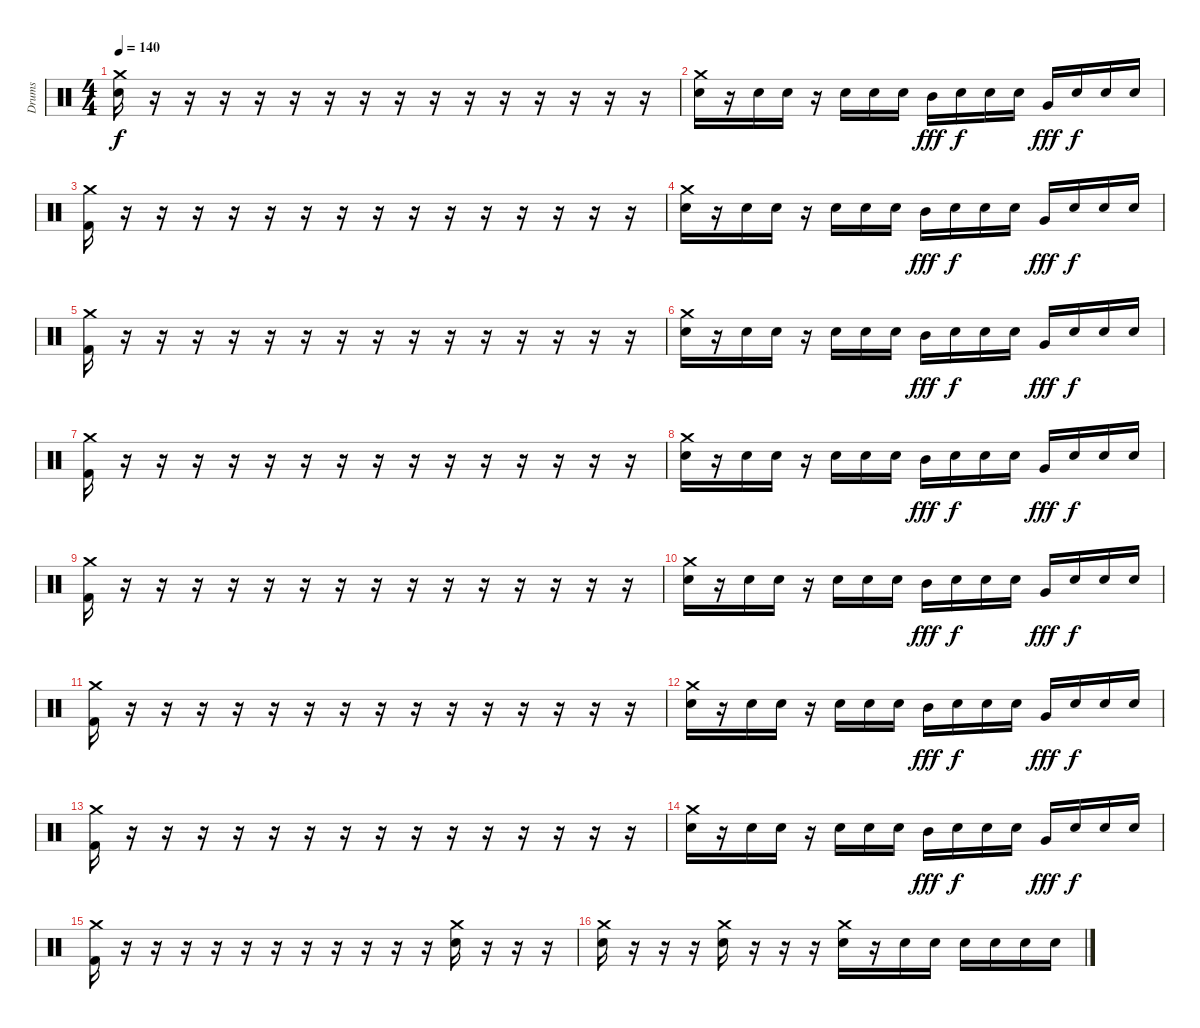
\track ("Drums" "Drums") {instrument percussion}
\staff {score}
\articulation defaults
\ts (4 4)
\tempo 140
\clef neutral
\ks c
("Crash medium (hit)" "Electric Snare (hit)").16{dy f} r.16 r.16 r.16 r.16 r.16 r.16 r.16 r.16 r.16 r.16 r.16 r.16 r.16 r.16 r.16 |
("Crash medium (hit)" "Electric Snare (hit)").16 r.16 "Electric Snare (hit)".16 "Electric Snare (hit)".16 r.16 "Electric Snare (hit)".16 "Electric Snare (hit)".16 "Electric Snare (hit)".16 "Mid Tom (hit)".16{dy fff} "Electric Snare (hit)".16{dy f} "Electric Snare (hit)".16 "Electric Snare (hit)".16 "Very Low Tom (hit)".16{dy fff} "Electric Snare (hit)".16{dy f} "Electric Snare (hit)".16 "Electric Snare (hit)".16 |
("Crash medium (hit)" "Kick (hit) 2").16 r.16 r.16 r.16 r.16 r.16 r.16 r.16 r.16 r.16 r.16 r.16 r.16 r.16 r.16 r.16 |
("Crash medium (hit)" "Electric Snare (hit)").16 r.16 "Electric Snare (hit)".16 "Electric Snare (hit)".16 r.16 "Electric Snare (hit)".16 "Electric Snare (hit)".16 "Electric Snare (hit)".16 "Mid Tom (hit)".16{dy fff} "Electric Snare (hit)".16{dy f} "Electric Snare (hit)".16 "Electric Snare (hit)".16 "Very Low Tom (hit)".16{dy fff} "Electric Snare (hit)".16{dy f} "Electric Snare (hit)".16 "Electric Snare (hit)".16 |
("Crash medium (hit)" "Kick (hit) 2").16 r.16 r.16 r.16 r.16 r.16 r.16 r.16 r.16 r.16 r.16 r.16 r.16 r.16 r.16 r.16 |
("Crash medium (hit)" "Electric Snare (hit)").16 r.16 "Electric Snare (hit)".16 "Electric Snare (hit)".16 r.16 "Electric Snare (hit)".16 "Electric Snare (hit)".16 "Electric Snare (hit)".16 "Mid Tom (hit)".16{dy fff} "Electric Snare (hit)".16{dy f} "Electric Snare (hit)".16 "Electric Snare (hit)".16 "Very Low Tom (hit)".16{dy fff} "Electric Snare (hit)".16{dy f} "Electric Snare (hit)".16 "Electric Snare (hit)".16 |
("Crash medium (hit)" "Kick (hit) 2").16 r.16 r.16 r.16 r.16 r.16 r.16 r.16 r.16 r.16 r.16 r.16 r.16 r.16 r.16 r.16 |
("Crash medium (hit)" "Electric Snare (hit)").16 r.16 "Electric Snare (hit)".16 "Electric Snare (hit)".16 r.16 "Electric Snare (hit)".16 "Electric Snare (hit)".16 "Electric Snare (hit)".16 "Mid Tom (hit)".16{dy fff} "Electric Snare (hit)".16{dy f} "Electric Snare (hit)".16 "Electric Snare (hit)".16 "Very Low Tom (hit)".16{dy fff} "Electric Snare (hit)".16{dy f} "Electric Snare (hit)".16 "Electric Snare (hit)".16 |
("Crash medium (hit)" "Kick (hit) 2").16 r.16 r.16 r.16 r.16 r.16 r.16 r.16 r.16 r.16 r.16 r.16 r.16 r.16 r.16 r.16 |
("Crash medium (hit)" "Electric Snare (hit)").16 r.16 "Electric Snare (hit)".16 "Electric Snare (hit)".16 r.16 "Electric Snare (hit)".16 "Electric Snare (hit)".16 "Electric Snare (hit)".16 "Mid Tom (hit)".16{dy fff} "Electric Snare (hit)".16{dy f} "Electric Snare (hit)".16 "Electric Snare (hit)".16 "Very Low Tom (hit)".16{dy fff} "Electric Snare (hit)".16{dy f} "Electric Snare (hit)".16 "Electric Snare (hit)".16 |
("Crash medium (hit)" "Kick (hit) 2").16 r.16 r.16 r.16 r.16 r.16 r.16 r.16 r.16 r.16 r.16 r.16 r.16 r.16 r.16 r.16 |
("Crash medium (hit)" "Electric Snare (hit)").16 r.16 "Electric Snare (hit)".16 "Electric Snare (hit)".16 r.16 "Electric Snare (hit)".16 "Electric Snare (hit)".16 "Electric Snare (hit)".16 "Mid Tom (hit)".16{dy fff} "Electric Snare (hit)".16{dy f} "Electric Snare (hit)".16 "Electric Snare (hit)".16 "Very Low Tom (hit)".16{dy fff} "Electric Snare (hit)".16{dy f} "Electric Snare (hit)".16 "Electric Snare (hit)".16 |
("Crash medium (hit)" "Kick (hit) 2").16 r.16 r.16 r.16 r.16 r.16 r.16 r.16 r.16 r.16 r.16 r.16 r.16 r.16 r.16 r.16 |
("Crash medium (hit)" "Electric Snare (hit)").16 r.16 "Electric Snare (hit)".16 "Electric Snare (hit)".16 r.16 "Electric Snare (hit)".16 "Electric Snare (hit)".16 "Electric Snare (hit)".16 "Mid Tom (hit)".16{dy fff} "Electric Snare (hit)".16{dy f} "Electric Snare (hit)".16 "Electric Snare (hit)".16 "Very Low Tom (hit)".16{dy fff} "Electric Snare (hit)".16{dy f} "Electric Snare (hit)".16 "Electric Snare (hit)".16 |
("Crash medium (hit)" "Kick (hit) 2").16 r.16 r.16 r.16 r.16 r.16 r.16 r.16 r.16 r.16 r.16 r.16 ("Crash medium (hit)" "Electric Snare (hit)").16 r.16 r.16 r.16 |
("Crash medium (hit)" "Electric Snare (hit)").16 r.16 r.16 r.16 ("Crash medium (hit)" "Electric Snare (hit)").16 r.16 r.16 r.16 ("Crash medium (hit)" "Electric Snare (hit)").16 r.16 "Electric Snare (hit)".16 "Electric Snare (hit)".16 "Electric Snare (hit)".16 "Electric Snare (hit)".16 "Electric Snare (hit)".16 "Electric Snare (hit)".16
